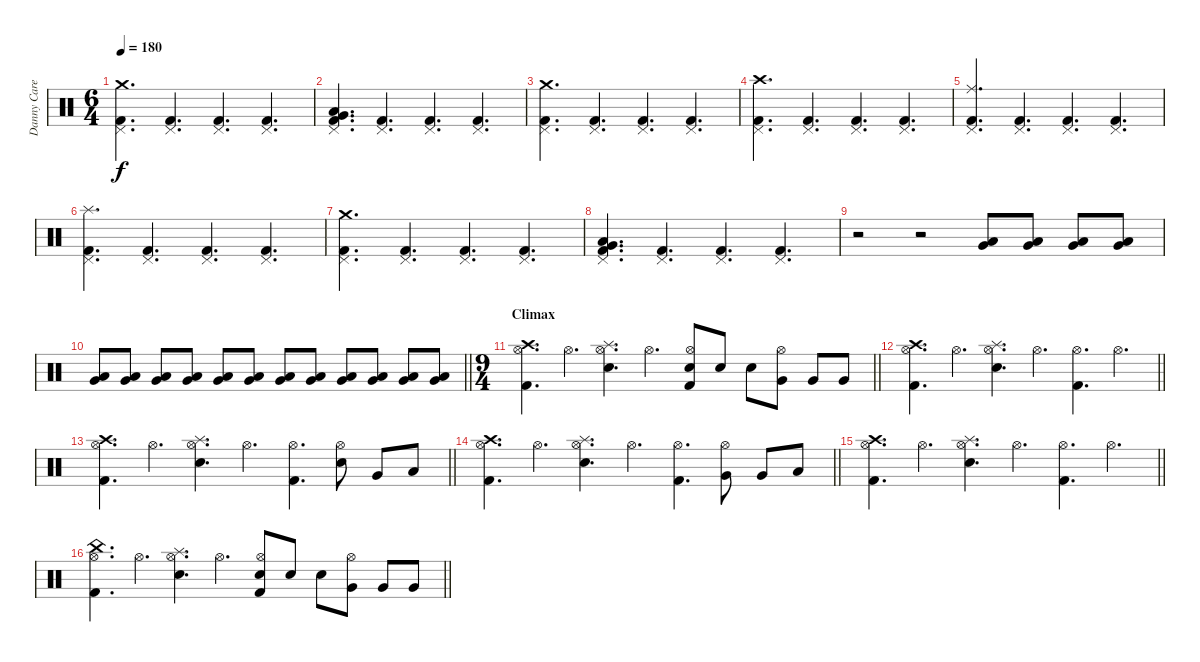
\track ("Danny Carey" "Danny Care") {instrument percussion}
\staff {score}
\articulation defaults
\ts (6 4)
\tempo 180
\clef neutral
\ks c
("Crash medium (hit)" "Pedal Hi-Hat (hit)" "Kick (hit) 2").4{d dy f} ("Pedal Hi-Hat (hit)" "Kick (hit) 2").4{d} ("Pedal Hi-Hat (hit)" "Kick (hit) 2").4{d} ("Pedal Hi-Hat (hit)" "Kick (hit) 2").4{d} |
("Very Low Tom (hit)" "Low Floor Tom (hit)" "Pedal Hi-Hat (hit)" "Kick (hit) 2").4{d} ("Pedal Hi-Hat (hit)" "Kick (hit) 2").4{d} ("Pedal Hi-Hat (hit)" "Kick (hit) 2").4{d} ("Pedal Hi-Hat (hit)" "Kick (hit) 2").4{d} |
("Crash medium (hit)" "Pedal Hi-Hat (hit)" "Kick (hit) 2").4{d} ("Pedal Hi-Hat (hit)" "Kick (hit) 2").4{d} ("Pedal Hi-Hat (hit)" "Kick (hit) 2").4{d} ("Pedal Hi-Hat (hit)" "Kick (hit) 2").4{d} |
("Crash high (hit)" "Pedal Hi-Hat (hit)" "Kick (hit) 2").4{d} ("Pedal Hi-Hat (hit)" "Kick (hit) 2").4{d} ("Pedal Hi-Hat (hit)" "Kick (hit) 2").4{d} ("Pedal Hi-Hat (hit)" "Kick (hit) 2").4{d} |
("Ride (middle)" "Pedal Hi-Hat (hit)" "Kick (hit) 2").4{d} ("Pedal Hi-Hat (hit)" "Kick (hit) 2").4{d} ("Pedal Hi-Hat (hit)" "Kick (hit) 2").4{d} ("Pedal Hi-Hat (hit)" "Kick (hit) 2").4{d} |
("Splash (hit)" "Pedal Hi-Hat (hit)" "Kick (hit) 2").4{d} ("Pedal Hi-Hat (hit)" "Kick (hit) 2").4{d} ("Pedal Hi-Hat (hit)" "Kick (hit) 2").4{d} ("Pedal Hi-Hat (hit)" "Kick (hit) 2").4{d} |
("Crash medium (hit)" "Pedal Hi-Hat (hit)" "Kick (hit) 2").4{d} ("Pedal Hi-Hat (hit)" "Kick (hit) 2").4{d} ("Pedal Hi-Hat (hit)" "Kick (hit) 2").4{d} ("Pedal Hi-Hat (hit)" "Kick (hit) 2").4{d} |
("Very Low Tom (hit)" "Low Floor Tom (hit)" "Pedal Hi-Hat (hit)" "Kick (hit) 2").4{d} ("Pedal Hi-Hat (hit)" "Kick (hit) 2").4{d} ("Pedal Hi-Hat (hit)" "Kick (hit) 2").4{d} ("Pedal Hi-Hat (hit)" "Kick (hit) 2").4{d} |
r.2 r.2{volume 0} ("Very Low Tom (hit)" "Low Floor Tom (hit)").8{volume 13} ("Very Low Tom (hit)" "Low Floor Tom (hit)").8 ("Very Low Tom (hit)" "Low Floor Tom (hit)").8 ("Very Low Tom (hit)" "Low Floor Tom (hit)").8 |
\barLineRight lightlight
("Very Low Tom (hit)" "Low Floor Tom (hit)").8 ("Very Low Tom (hit)" "Low Floor Tom (hit)").8 ("Very Low Tom (hit)" "Low Floor Tom (hit)").8 ("Very Low Tom (hit)" "Low Floor Tom (hit)").8 ("Very Low Tom (hit)" "Low Floor Tom (hit)").8 ("Very Low Tom (hit)" "Low Floor Tom (hit)").8 ("Very Low Tom (hit)" "Low Floor Tom (hit)").8 ("Very Low Tom (hit)" "Low Floor Tom (hit)").8 ("Very Low Tom (hit)" "Low Floor Tom (hit)").8 ("Very Low Tom (hit)" "Low Floor Tom (hit)").8 ("Very Low Tom (hit)" "Low Floor Tom (hit)").8 ("Very Low Tom (hit)" "Low Floor Tom (hit)").8 |
\ts (9 4)
\section ("" "Climax")
\barLineRight lightlight
("Crash high (hit)" "Hi-Hat (open)" "Kick (hit) 2").4{d} "Hi-Hat (open)".4{d} ("Splash (hit)" "Hi-Hat (open)" "Electric Snare (hit)").4{d} "Hi-Hat (open)".4{d} ("Hi-Hat (open)" "Electric Snare (hit)" "Kick (hit) 2").8 "Electric Snare (hit)".8 "Electric Snare (hit)".8 ("Hi-Hat (open)" "Very Low Tom (hit)").8 "Very Low Tom (hit)".8 "Very Low Tom (hit)".8 |
\section ("" "")
\barLineRight lightlight
("Crash high (hit)" "Hi-Hat (open)" "Kick (hit) 2").4{d} "Hi-Hat (open)".4{d} ("Splash (hit)" "Hi-Hat (open)" "Electric Snare (hit)").4{d} "Hi-Hat (open)".4{d} ("Hi-Hat (open)" "Kick (hit) 2").4{d} "Hi-Hat (open)".4{d} |
\barLineRight lightlight
("Crash high (hit)" "Hi-Hat (open)" "Kick (hit) 2").4{d} "Hi-Hat (open)".4{d} ("Splash (hit)" "Hi-Hat (open)" "Electric Snare (hit)").4{d} "Hi-Hat (open)".4{d} ("Hi-Hat (open)" "Kick (hit) 2").4{d} ("Hi-Hat (open)" "Electric Snare (hit)").8 "Very Low Tom (hit)".8 "Low Floor Tom (hit)".8 |
\barLineRight lightlight
("Crash high (hit)" "Hi-Hat (open)" "Kick (hit) 2").4{d} "Hi-Hat (open)".4{d} ("Splash (hit)" "Hi-Hat (open)" "Electric Snare (hit)").4{d} "Hi-Hat (open)".4{d} ("Hi-Hat (open)" "Kick (hit) 2").4{d} ("Very Low Tom (hit)" "Hi-Hat (open)").8 "Very Low Tom (hit)".8 "Low Floor Tom (hit)".8 |
\barLineRight lightlight
("Crash high (hit)" "Hi-Hat (open)" "Kick (hit) 2").4{d} "Hi-Hat (open)".4{d} ("Splash (hit)" "Hi-Hat (open)" "Electric Snare (hit)").4{d} "Hi-Hat (open)".4{d} ("Hi-Hat (open)" "Kick (hit) 2").4{d} "Hi-Hat (open)".4{d} |
\barLineRight lightlight
("China (hit)" "Hi-Hat (open)" "Kick (hit) 2").4{d} "Hi-Hat (open)".4{d} ("Splash (hit)" "Hi-Hat (open)" "Electric Snare (hit)").4{d} "Hi-Hat (open)".4{d} ("Hi-Hat (open)" "Electric Snare (hit)" "Kick (hit) 2").8 "Electric Snare (hit)".8 "Electric Snare (hit)".8 ("Hi-Hat (open)" "Very Low Tom (hit)").8 "Very Low Tom (hit)".8 "Very Low Tom (hit)".8
